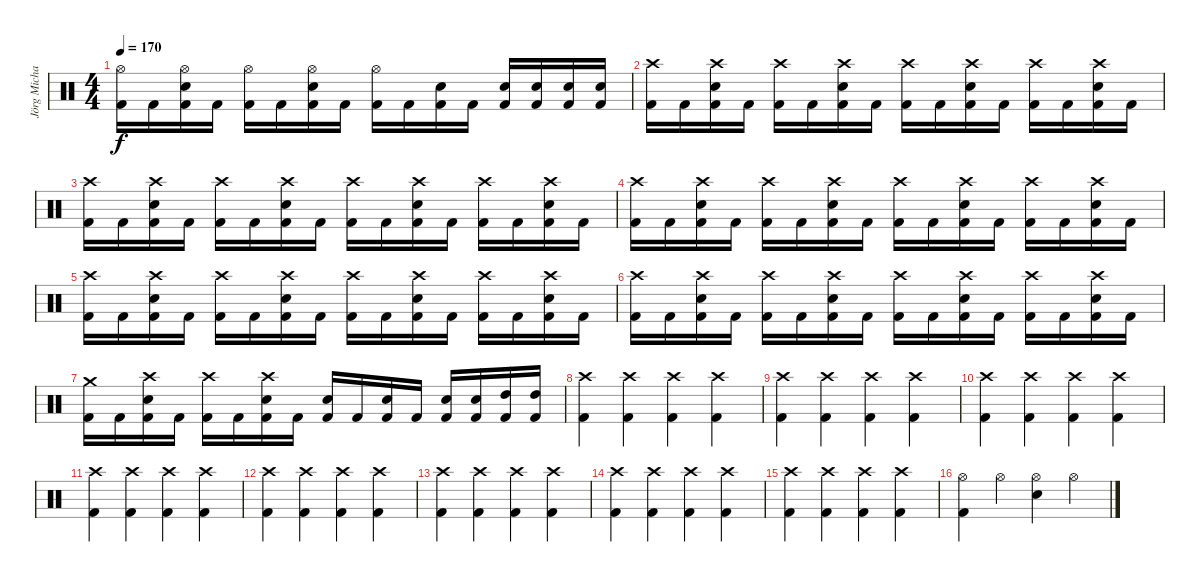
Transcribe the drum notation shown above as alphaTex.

\track ("Jörg Michael (Drums)" "Jörg Micha") {instrument percussion}
\staff {score}
\articulation defaults
\ts (4 4)
\tempo 170
\clef neutral
\ks c
("Hi-Hat (open)" "Kick (hit) 2").16{dy f} "Kick (hit) 2".16 ("Hi-Hat (open)" "Snare (hit) 2" "Kick (hit) 2").16 "Kick (hit) 2".16 ("Hi-Hat (open)" "Kick (hit) 2").16 "Kick (hit) 2".16 ("Hi-Hat (open)" "Snare (hit) 2" "Kick (hit) 2").16 "Kick (hit) 2".16 ("Hi-Hat (open)" "Kick (hit) 2").16 "Kick (hit) 2".16 ("Snare (hit) 2" "Kick (hit) 2").16 "Kick (hit) 2".16 ("Snare (hit) 2" "Kick (hit) 2").16 ("Snare (hit) 2" "Kick (hit) 2").16 ("Snare (hit) 2" "Kick (hit) 2").16 ("Snare (hit) 2" "Kick (hit) 2").16 |
("Crash high (hit)" "Kick (hit) 2").16 "Kick (hit) 2".16 ("Snare (hit) 2" "Crash high (hit)" "Kick (hit) 2").16 "Kick (hit) 2".16 ("Crash high (hit)" "Kick (hit) 2").16 "Kick (hit) 2".16 ("Snare (hit) 2" "Crash high (hit)" "Kick (hit) 2").16 "Kick (hit) 2".16 ("Crash high (hit)" "Kick (hit) 2").16 "Kick (hit) 2".16 ("Snare (hit) 2" "Crash high (hit)" "Kick (hit) 2").16 "Kick (hit) 2".16 ("Crash high (hit)" "Kick (hit) 2").16 "Kick (hit) 2".16 ("Snare (hit) 2" "Crash high (hit)" "Kick (hit) 2").16 "Kick (hit) 2".16 |
("Crash high (hit)" "Kick (hit) 2").16 "Kick (hit) 2".16 ("Snare (hit) 2" "Crash high (hit)" "Kick (hit) 2").16 "Kick (hit) 2".16 ("Crash high (hit)" "Kick (hit) 2").16 "Kick (hit) 2".16 ("Snare (hit) 2" "Crash high (hit)" "Kick (hit) 2").16 "Kick (hit) 2".16 ("Crash high (hit)" "Kick (hit) 2").16 "Kick (hit) 2".16 ("Snare (hit) 2" "Crash high (hit)" "Kick (hit) 2").16 "Kick (hit) 2".16 ("Crash high (hit)" "Kick (hit) 2").16 "Kick (hit) 2".16 ("Snare (hit) 2" "Crash high (hit)" "Kick (hit) 2").16 "Kick (hit) 2".16 |
("Crash high (hit)" "Kick (hit) 2").16 "Kick (hit) 2".16 ("Snare (hit) 2" "Crash high (hit)" "Kick (hit) 2").16 "Kick (hit) 2".16 ("Crash high (hit)" "Kick (hit) 2").16 "Kick (hit) 2".16 ("Snare (hit) 2" "Crash high (hit)" "Kick (hit) 2").16 "Kick (hit) 2".16 ("Crash high (hit)" "Kick (hit) 2").16 "Kick (hit) 2".16 ("Snare (hit) 2" "Crash high (hit)" "Kick (hit) 2").16 "Kick (hit) 2".16 ("Crash high (hit)" "Kick (hit) 2").16 "Kick (hit) 2".16 ("Snare (hit) 2" "Crash high (hit)" "Kick (hit) 2").16 "Kick (hit) 2".16 |
("Crash high (hit)" "Kick (hit) 2").16 "Kick (hit) 2".16 ("Snare (hit) 2" "Crash high (hit)" "Kick (hit) 2").16 "Kick (hit) 2".16 ("Crash high (hit)" "Kick (hit) 2").16 "Kick (hit) 2".16 ("Snare (hit) 2" "Crash high (hit)" "Kick (hit) 2").16 "Kick (hit) 2".16 ("Crash high (hit)" "Kick (hit) 2").16 "Kick (hit) 2".16 ("Snare (hit) 2" "Crash high (hit)" "Kick (hit) 2").16 "Kick (hit) 2".16 ("Crash high (hit)" "Kick (hit) 2").16 "Kick (hit) 2".16 ("Snare (hit) 2" "Crash high (hit)" "Kick (hit) 2").16 "Kick (hit) 2".16 |
("Crash high (hit)" "Kick (hit) 2").16 "Kick (hit) 2".16 ("Snare (hit) 2" "Crash high (hit)" "Kick (hit) 2").16 "Kick (hit) 2".16 ("Crash high (hit)" "Kick (hit) 2").16 "Kick (hit) 2".16 ("Snare (hit) 2" "Crash high (hit)" "Kick (hit) 2").16 "Kick (hit) 2".16 ("Crash high (hit)" "Kick (hit) 2").16 "Kick (hit) 2".16 ("Snare (hit) 2" "Crash high (hit)" "Kick (hit) 2").16 "Kick (hit) 2".16 ("Crash high (hit)" "Kick (hit) 2").16 "Kick (hit) 2".16 ("Snare (hit) 2" "Crash high (hit)" "Kick (hit) 2").16 "Kick (hit) 2".16 |
("Crash medium (hit)" "Kick (hit) 2").16 "Kick (hit) 2".16 ("Snare (hit) 2" "Crash high (hit)" "Kick (hit) 2").16 "Kick (hit) 2".16 ("Crash high (hit)" "Kick (hit) 2").16 "Kick (hit) 2".16 ("Snare (hit) 2" "Crash high (hit)" "Kick (hit) 2").16 "Kick (hit) 2".16 ("Snare (hit) 2" "Kick (hit) 2").16 "Kick (hit) 2".16 ("Snare (hit) 2" "Kick (hit) 2").16 "Kick (hit) 2".16 ("Snare (hit) 2" "Kick (hit) 2").16 ("Snare (hit) 2" "Kick (hit) 2").16 ("High Tom (hit)" "Kick (hit) 2").16 ("High Tom (hit)" "Kick (hit) 2").16 |
("Kick (hit) 2" "Crash high (hit)").4 ("Kick (hit) 2" "Crash high (hit)").4 ("Kick (hit) 2" "Crash high (hit)").4 ("Kick (hit) 2" "Crash high (hit)").4 |
("Kick (hit) 2" "Crash high (hit)").4 ("Kick (hit) 2" "Crash high (hit)").4 ("Kick (hit) 2" "Crash high (hit)").4 ("Kick (hit) 2" "Crash high (hit)").4 |
("Kick (hit) 2" "Crash high (hit)").4 ("Kick (hit) 2" "Crash high (hit)").4 ("Kick (hit) 2" "Crash high (hit)").4 ("Kick (hit) 2" "Crash high (hit)").4 |
("Kick (hit) 2" "Crash high (hit)").4 ("Kick (hit) 2" "Crash high (hit)").4 ("Kick (hit) 2" "Crash high (hit)").4 ("Kick (hit) 2" "Crash high (hit)").4 |
("Kick (hit) 2" "Crash high (hit)").4 ("Kick (hit) 2" "Crash high (hit)").4 ("Kick (hit) 2" "Crash high (hit)").4 ("Kick (hit) 2" "Crash high (hit)").4 |
("Kick (hit) 2" "Crash high (hit)").4 ("Kick (hit) 2" "Crash high (hit)").4 ("Kick (hit) 2" "Crash high (hit)").4 ("Kick (hit) 2" "Crash high (hit)").4 |
("Kick (hit) 2" "Crash high (hit)").4 ("Kick (hit) 2" "Crash high (hit)").4 ("Kick (hit) 2" "Crash high (hit)").4 ("Kick (hit) 2" "Crash high (hit)").4 |
("Kick (hit) 2" "Crash high (hit)").4 ("Kick (hit) 2" "Crash high (hit)").4 ("Kick (hit) 2" "Crash high (hit)").4 ("Kick (hit) 2" "Crash high (hit)").4 |
("Hi-Hat (open)" "Kick (hit) 2").4 "Hi-Hat (open)".4 ("Hi-Hat (open)" "Snare (hit) 2").4 "Hi-Hat (open)".4
